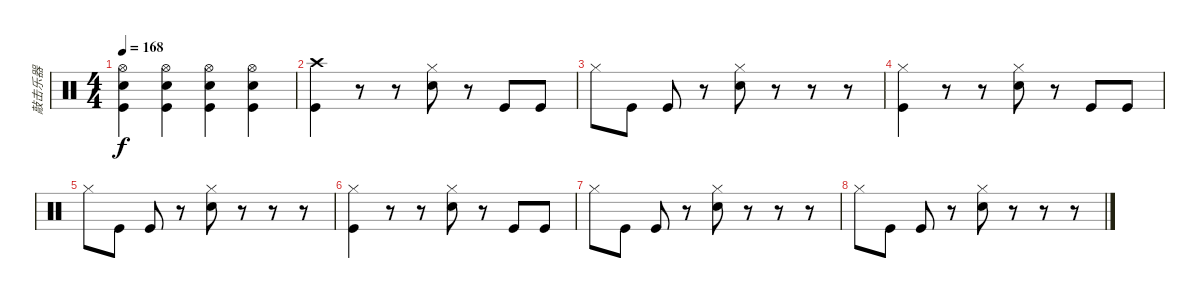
\track ("敲击乐器" "敲击乐器") {instrument percussion}
\staff {score}
\articulation defaults
\ts (4 4)
\tempo 168
\clef neutral
\ks c
("Hi-Hat (open)" "Snare (hit) 2" "Kick (hit)").4{dy f} ("Hi-Hat (open)" "Snare (hit) 2" "Kick (hit)").4 ("Hi-Hat (open)" "Snare (hit) 2" "Kick (hit)").4 ("Hi-Hat (open)" "Snare (hit) 2" "Kick (hit)").4 |
("Crash high (hit)" "Kick (hit)").4 r.8 r.8 ("Hi-Hat (closed)" "Snare (hit) 2").8 r.8 "Kick (hit)".8 "Kick (hit)".8 |
"Hi-Hat (closed)".8 "Kick (hit)".8 "Kick (hit)".8 r.8 ("Hi-Hat (closed)" "Snare (hit) 2").8 r.8 r.8 r.8 |
("Hi-Hat (closed)" "Kick (hit)").4 r.8 r.8 ("Hi-Hat (closed)" "Snare (hit) 2").8 r.8 "Kick (hit)".8 "Kick (hit)".8 |
"Hi-Hat (closed)".8 "Kick (hit)".8 "Kick (hit)".8 r.8 ("Hi-Hat (closed)" "Snare (hit) 2").8 r.8 r.8 r.8 |
("Hi-Hat (closed)" "Kick (hit)").4 r.8 r.8 ("Hi-Hat (closed)" "Snare (hit) 2").8 r.8 "Kick (hit)".8 "Kick (hit)".8 |
"Hi-Hat (closed)".8 "Kick (hit)".8 "Kick (hit)".8 r.8 ("Hi-Hat (closed)" "Snare (hit) 2").8 r.8 r.8 r.8 |
"Hi-Hat (closed)".8 "Kick (hit)".8 "Kick (hit)".8 r.8 ("Hi-Hat (closed)" "Snare (hit) 2").8 r.8 r.8 r.8
